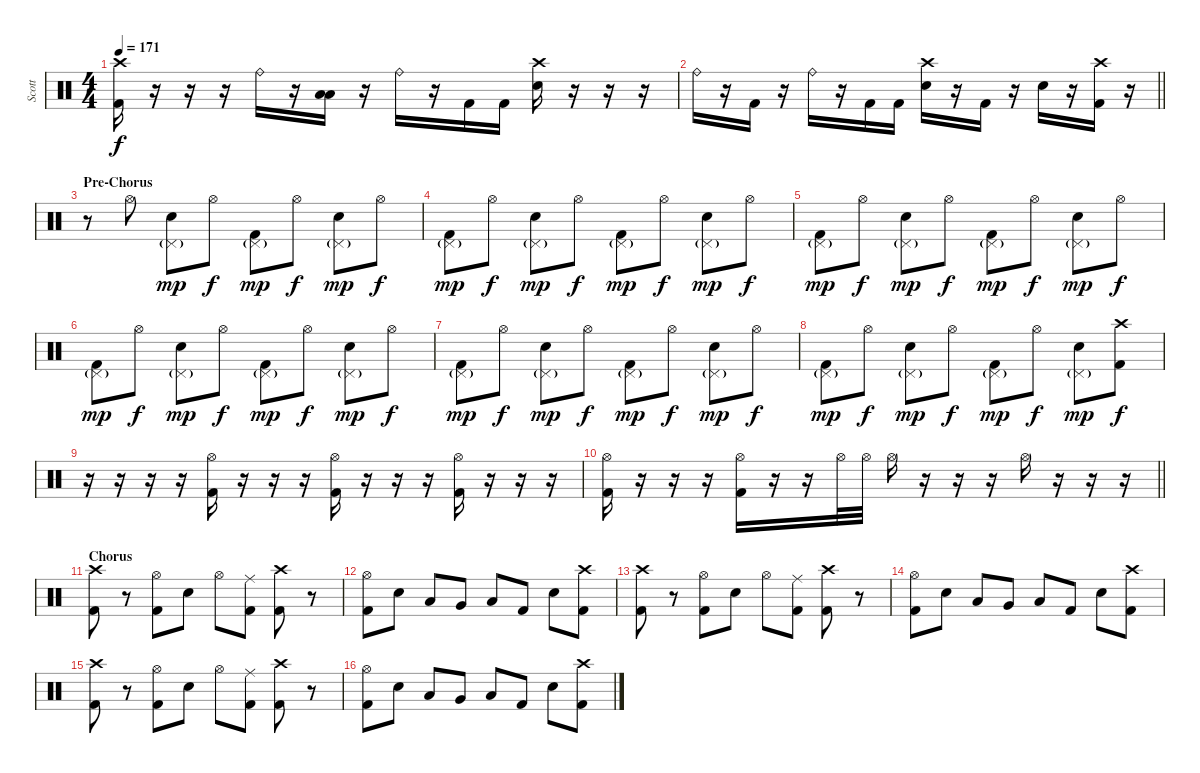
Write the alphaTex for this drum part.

\track ("Scott" "Scott") {instrument percussion}
\staff {score}
\articulation defaults
\ts (4 4)
\tempo 171
\clef neutral
\ks c
("Crash high (hit)" "Kick (hit) 2").16{dy f} r.16 r.16 r.16 "Ride (bell)".16 r.16 ("Low Tom (hit)" "Low Tom (hit)").16 r.16 "Ride (bell)".16 r.16 "Kick (hit) 2".16 "Kick (hit) 2".16 ("Crash high (hit)" "Electric Snare (hit)").16 r.16 r.16 r.16 |
\barLineRight lightlight "Ride (bell)".16
r.16 "Kick (hit) 2".16 r.16 "Ride (bell)".16 r.16 "Kick (hit) 2".16 "Kick (hit) 2".16 ("Crash high (hit)" "Electric Snare (hit)").16 r.16 "Kick (hit) 2".16 r.16 "Electric Snare (hit)".16 r.16 ("Crash high (hit)" "Kick (hit) 2").16 r.16 |
\section ("" "Pre-Chorus")
r.8 "Hi-Hat (open)".8 ("Pedal Hi-Hat (hit)"{g} "Electric Snare (hit)").8{dy mp} "Hi-Hat (open)".8{dy f} ("Pedal Hi-Hat (hit)"{g} "Kick (hit) 2").8{dy mp} "Hi-Hat (open)".8{dy f} ("Pedal Hi-Hat (hit)"{g} "Electric Snare (hit)").8{dy mp} "Hi-Hat (open)".8{dy f} |
("Pedal Hi-Hat (hit)"{g} "Kick (hit) 2").8{dy mp} "Hi-Hat (open)".8{dy f} ("Pedal Hi-Hat (hit)"{g} "Electric Snare (hit)").8{dy mp} "Hi-Hat (open)".8{dy f} ("Pedal Hi-Hat (hit)"{g} "Kick (hit) 2").8{dy mp} "Hi-Hat (open)".8{dy f} ("Pedal Hi-Hat (hit)"{g} "Electric Snare (hit)").8{dy mp} "Hi-Hat (open)".8{dy f} |
("Pedal Hi-Hat (hit)"{g} "Kick (hit) 2").8{dy mp} "Hi-Hat (open)".8{dy f} ("Pedal Hi-Hat (hit)"{g} "Electric Snare (hit)").8{dy mp} "Hi-Hat (open)".8{dy f} ("Pedal Hi-Hat (hit)"{g} "Kick (hit) 2").8{dy mp} "Hi-Hat (open)".8{dy f} ("Pedal Hi-Hat (hit)"{g} "Electric Snare (hit)").8{dy mp} "Hi-Hat (open)".8{dy f} |
("Pedal Hi-Hat (hit)"{g} "Kick (hit) 2").8{dy mp} "Hi-Hat (open)".8{dy f} ("Pedal Hi-Hat (hit)"{g} "Electric Snare (hit)").8{dy mp} "Hi-Hat (open)".8{dy f} ("Pedal Hi-Hat (hit)"{g} "Kick (hit) 2").8{dy mp} "Hi-Hat (open)".8{dy f} ("Pedal Hi-Hat (hit)"{g} "Electric Snare (hit)").8{dy mp} "Hi-Hat (open)".8{dy f} |
("Pedal Hi-Hat (hit)"{g} "Kick (hit) 2").8{dy mp} "Hi-Hat (open)".8{dy f} ("Pedal Hi-Hat (hit)"{g} "Electric Snare (hit)").8{dy mp} "Hi-Hat (open)".8{dy f} ("Pedal Hi-Hat (hit)"{g} "Kick (hit) 2").8{dy mp} "Hi-Hat (open)".8{dy f} ("Pedal Hi-Hat (hit)"{g} "Electric Snare (hit)").8{dy mp} "Hi-Hat (open)".8{dy f} |
("Pedal Hi-Hat (hit)"{g} "Kick (hit) 2").8{dy mp} "Hi-Hat (open)".8{dy f} ("Pedal Hi-Hat (hit)"{g} "Electric Snare (hit)").8{dy mp} "Hi-Hat (open)".8{dy f} ("Pedal Hi-Hat (hit)"{g} "Kick (hit) 2").8{dy mp} "Hi-Hat (open)".8{dy f} ("Pedal Hi-Hat (hit)"{g} "Electric Snare (hit)").8{dy mp} ("Crash high (hit)" "Kick (hit) 2").8{dy f} |
r.16 r.16 r.16 r.16 ("Hi-Hat (open)" "Kick (hit) 2").16 r.16 r.16 r.16 ("Hi-Hat (open)" "Kick (hit) 2").16 r.16 r.16 r.16 ("Hi-Hat (open)" "Kick (hit) 2").16 r.16 r.16 r.16 |
\barLineRight lightlight
("Hi-Hat (open)" "Kick (hit) 2").16 r.16 r.16 r.16 ("Hi-Hat (open)" "Kick (hit) 2").16 r.16 r.16 "Hi-Hat (open)".32 "Hi-Hat (open)".32 "Hi-Hat (open)".16 r.16 r.16 r.16 "Hi-Hat (open)".16 r.16 r.16 r.16 |
\section ("" "Chorus")
("Crash high (hit)" "Kick (hit) 2").8 r.8 ("Hi-Hat (open)" "Kick (hit) 2").8 "Electric Snare (hit)".8 "Hi-Hat (open)".8 ("Ride (middle)" "Kick (hit) 2").8 ("Crash high (hit)" "Kick (hit) 2").8 r.8 |
("Hi-Hat (open)" "Kick (hit) 2").8 "Electric Snare (hit)".8 "Low Tom (hit)".8 "Very Low Tom (hit)".8 "Low Floor Tom (hit)".8 "Kick (hit) 2".8 "Electric Snare (hit)".8 ("Crash high (hit)" "Kick (hit) 2").8 |
("Crash high (hit)" "Kick (hit) 2").8 r.8 ("Hi-Hat (open)" "Kick (hit) 2").8 "Electric Snare (hit)".8 "Hi-Hat (open)".8 ("Ride (middle)" "Kick (hit) 2").8 ("Crash high (hit)" "Kick (hit) 2").8 r.8 |
("Hi-Hat (open)" "Kick (hit) 2").8 "Electric Snare (hit)".8 "Low Tom (hit)".8 "Very Low Tom (hit)".8 "Low Floor Tom (hit)".8 "Kick (hit) 2".8 "Electric Snare (hit)".8 ("Crash high (hit)" "Kick (hit) 2").8 |
("Crash high (hit)" "Kick (hit) 2").8 r.8 ("Hi-Hat (open)" "Kick (hit) 2").8 "Electric Snare (hit)".8 "Hi-Hat (open)".8 ("Ride (middle)" "Kick (hit) 2").8 ("Crash high (hit)" "Kick (hit) 2").8 r.8 |
("Hi-Hat (open)" "Kick (hit) 2").8 "Electric Snare (hit)".8 "Low Tom (hit)".8 "Very Low Tom (hit)".8 "Low Floor Tom (hit)".8 "Kick (hit) 2".8 "Electric Snare (hit)".8 ("Crash high (hit)" "Kick (hit) 2").8
